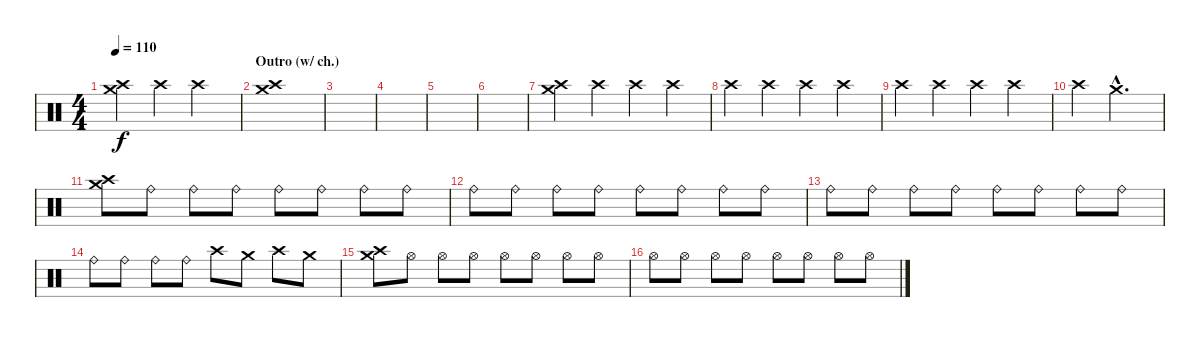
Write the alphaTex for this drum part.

\track "" {instrument percussion}
\staff {score}
\articulation defaults
\ts (4 4)
\tempo 110
\clef neutral
\ks c
("Crash medium (hit)" "Crash high (hit)").4{dy f} "Crash high (hit)".4 "Crash high (hit)".2 |
\section ("" "Outro (w/ ch.)")
("Crash medium (hit)" "Crash high (hit)").1 |
|
|
|
|
("Crash medium (hit)" "Crash high (hit)").4 "Crash high (hit)".4 "Crash high (hit)".4 "Crash high (hit)".4 |
"Crash high (hit)".4 "Crash high (hit)".4 "Crash high (hit)".4 "Crash high (hit)".4 |
"Crash high (hit)".4 "Crash high (hit)".4 "Crash high (hit)".4 "Crash high (hit)".4 |
"Crash high (hit)".4 "Crash medium (hit)"{hac}.2{d} |
("Crash medium (hit)" "Crash high (hit)").8 "Ride (bell)".8 "Ride (bell)".8 "Ride (bell)".8 "Ride (bell)".8 "Ride (bell)".8 "Ride (bell)".8 "Ride (bell)".8 |
"Ride (bell)".8 "Ride (bell)".8 "Ride (bell)".8 "Ride (bell)".8 "Ride (bell)".8 "Ride (bell)".8 "Ride (bell)".8 "Ride (bell)".8 |
"Ride (bell)".8 "Ride (bell)".8 "Ride (bell)".8 "Ride (bell)".8 "Ride (bell)".8 "Ride (bell)".8 "Ride (bell)".8 "Ride (bell)".8 |
"Ride (bell)".8 "Ride (bell)".8 "Ride (bell)".8 "Ride (bell)".8 "Crash high (hit)".8 "Crash medium (hit)".8 "Crash high (hit)".8 "Crash medium (hit)".8 |
("Crash medium (hit)" "Crash high (hit)").8 "Hi-Hat (open)".8 "Hi-Hat (open)".8 "Hi-Hat (open)".8 "Hi-Hat (open)".8 "Hi-Hat (open)".8 "Hi-Hat (open)".8 "Hi-Hat (open)".8 |
"Hi-Hat (open)".8 "Hi-Hat (open)".8 "Hi-Hat (open)".8 "Hi-Hat (open)".8 "Hi-Hat (open)".8 "Hi-Hat (open)".8 "Hi-Hat (open)".8 "Hi-Hat (open)".8
